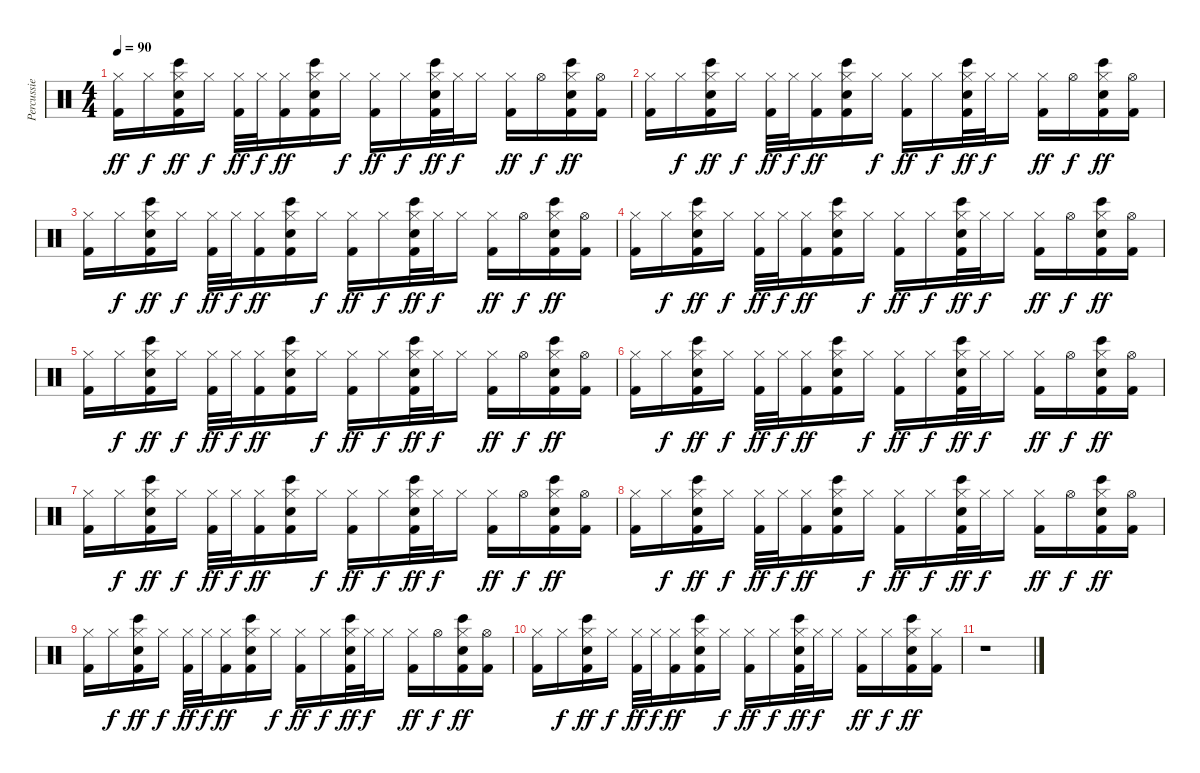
\track ("Percussie" "Percussie") {instrument percussion}
\staff {score}
\articulation defaults
\ts (4 4)
\tempo 90
\clef neutral
\ks c
("Hi-Hat (closed)" "Kick (hit) 2").16{dy ff} "Hi-Hat (closed)".16{dy f} ("Hi-Hat (closed)" "Electric Snare (hit)" "Bongo High (hit)" "Kick (hit) 2").16{dy ff} "Hi-Hat (closed)".16{dy f} ("Hi-Hat (closed)" "Kick (hit) 2").32{dy ff} "Hi-Hat (closed)".32{dy f} ("Hi-Hat (closed)" "Kick (hit) 2").16{dy ff} ("Hi-Hat (closed)" "Electric Snare (hit)" "Bongo High (hit)" "Kick (hit) 2").16 "Hi-Hat (closed)".16{dy f} ("Hi-Hat (closed)" "Kick (hit) 2").16{dy ff} "Hi-Hat (closed)".16{dy f} ("Hi-Hat (closed)" "Electric Snare (hit)" "Bongo High (hit)" "Kick (hit) 2").32{dy ff} "Hi-Hat (closed)".32{dy f} "Hi-Hat (closed)".16 ("Hi-Hat (closed)" "Kick (hit) 2").16{dy ff} "Hi-Hat (open)".16{dy f} ("Hi-Hat (closed)" "Electric Snare (hit)" "Bongo High (hit)" "Kick (hit) 2").16{dy ff} ("Hi-Hat (open)" "Kick (hit) 2").16 |
("Hi-Hat (closed)" "Kick (hit) 2").16 "Hi-Hat (closed)".16{dy f} ("Hi-Hat (closed)" "Electric Snare (hit)" "Bongo High (hit)" "Kick (hit) 2").16{dy ff} "Hi-Hat (closed)".16{dy f} ("Hi-Hat (closed)" "Kick (hit) 2").32{dy ff} "Hi-Hat (closed)".32{dy f} ("Hi-Hat (closed)" "Kick (hit) 2").16{dy ff} ("Hi-Hat (closed)" "Electric Snare (hit)" "Bongo High (hit)" "Kick (hit) 2").16 "Hi-Hat (closed)".16{dy f} ("Hi-Hat (closed)" "Kick (hit) 2").16{dy ff} "Hi-Hat (closed)".16{dy f} ("Hi-Hat (closed)" "Electric Snare (hit)" "Bongo High (hit)" "Kick (hit) 2").32{dy ff} "Hi-Hat (closed)".32{dy f} "Hi-Hat (closed)".16 ("Hi-Hat (closed)" "Kick (hit) 2").16{dy ff} "Hi-Hat (open)".16{dy f} ("Hi-Hat (closed)" "Electric Snare (hit)" "Bongo High (hit)" "Kick (hit) 2").16{dy ff} ("Hi-Hat (open)" "Kick (hit) 2").16 |
("Hi-Hat (closed)" "Kick (hit) 2").16 "Hi-Hat (closed)".16{dy f} ("Hi-Hat (closed)" "Electric Snare (hit)" "Bongo High (hit)" "Kick (hit) 2").16{dy ff} "Hi-Hat (closed)".16{dy f} ("Hi-Hat (closed)" "Kick (hit) 2").32{dy ff} "Hi-Hat (closed)".32{dy f} ("Hi-Hat (closed)" "Kick (hit) 2").16{dy ff} ("Hi-Hat (closed)" "Electric Snare (hit)" "Bongo High (hit)" "Kick (hit) 2").16 "Hi-Hat (closed)".16{dy f} ("Hi-Hat (closed)" "Kick (hit) 2").16{dy ff} "Hi-Hat (closed)".16{dy f} ("Hi-Hat (closed)" "Electric Snare (hit)" "Bongo High (hit)" "Kick (hit) 2").32{dy ff} "Hi-Hat (closed)".32{dy f} "Hi-Hat (closed)".16 ("Hi-Hat (closed)" "Kick (hit) 2").16{dy ff} "Hi-Hat (open)".16{dy f} ("Hi-Hat (closed)" "Electric Snare (hit)" "Bongo High (hit)" "Kick (hit) 2").16{dy ff} ("Hi-Hat (open)" "Kick (hit) 2").16 |
("Hi-Hat (closed)" "Kick (hit) 2").16 "Hi-Hat (closed)".16{dy f} ("Hi-Hat (closed)" "Electric Snare (hit)" "Bongo High (hit)" "Kick (hit) 2").16{dy ff} "Hi-Hat (closed)".16{dy f} ("Hi-Hat (closed)" "Kick (hit) 2").32{dy ff} "Hi-Hat (closed)".32{dy f} ("Hi-Hat (closed)" "Kick (hit) 2").16{dy ff} ("Hi-Hat (closed)" "Electric Snare (hit)" "Bongo High (hit)" "Kick (hit) 2").16 "Hi-Hat (closed)".16{dy f} ("Hi-Hat (closed)" "Kick (hit) 2").16{dy ff} "Hi-Hat (closed)".16{dy f} ("Hi-Hat (closed)" "Electric Snare (hit)" "Bongo High (hit)" "Kick (hit) 2").32{dy ff} "Hi-Hat (closed)".32{dy f} "Hi-Hat (closed)".16 ("Hi-Hat (closed)" "Kick (hit) 2").16{dy ff} "Hi-Hat (open)".16{dy f} ("Hi-Hat (closed)" "Electric Snare (hit)" "Bongo High (hit)" "Kick (hit) 2").16{dy ff} ("Hi-Hat (open)" "Kick (hit) 2").16 |
("Hi-Hat (closed)" "Kick (hit) 2").16 "Hi-Hat (closed)".16{dy f} ("Hi-Hat (closed)" "Electric Snare (hit)" "Bongo High (hit)" "Kick (hit) 2").16{dy ff} "Hi-Hat (closed)".16{dy f} ("Hi-Hat (closed)" "Kick (hit) 2").32{dy ff} "Hi-Hat (closed)".32{dy f} ("Hi-Hat (closed)" "Kick (hit) 2").16{dy ff} ("Hi-Hat (closed)" "Electric Snare (hit)" "Bongo High (hit)" "Kick (hit) 2").16 "Hi-Hat (closed)".16{dy f} ("Hi-Hat (closed)" "Kick (hit) 2").16{dy ff} "Hi-Hat (closed)".16{dy f} ("Hi-Hat (closed)" "Electric Snare (hit)" "Bongo High (hit)" "Kick (hit) 2").32{dy ff} "Hi-Hat (closed)".32{dy f} "Hi-Hat (closed)".16 ("Hi-Hat (closed)" "Kick (hit) 2").16{dy ff} "Hi-Hat (open)".16{dy f} ("Hi-Hat (closed)" "Electric Snare (hit)" "Bongo High (hit)" "Kick (hit) 2").16{dy ff} ("Hi-Hat (open)" "Kick (hit) 2").16 |
("Hi-Hat (closed)" "Kick (hit) 2").16 "Hi-Hat (closed)".16{dy f} ("Hi-Hat (closed)" "Electric Snare (hit)" "Bongo High (hit)" "Kick (hit) 2").16{dy ff} "Hi-Hat (closed)".16{dy f} ("Hi-Hat (closed)" "Kick (hit) 2").32{dy ff} "Hi-Hat (closed)".32{dy f} ("Hi-Hat (closed)" "Kick (hit) 2").16{dy ff} ("Hi-Hat (closed)" "Electric Snare (hit)" "Bongo High (hit)" "Kick (hit) 2").16 "Hi-Hat (closed)".16{dy f} ("Hi-Hat (closed)" "Kick (hit) 2").16{dy ff} "Hi-Hat (closed)".16{dy f} ("Hi-Hat (closed)" "Electric Snare (hit)" "Bongo High (hit)" "Kick (hit) 2").32{dy ff} "Hi-Hat (closed)".32{dy f} "Hi-Hat (closed)".16 ("Hi-Hat (closed)" "Kick (hit) 2").16{dy ff} "Hi-Hat (open)".16{dy f} ("Hi-Hat (closed)" "Electric Snare (hit)" "Bongo High (hit)" "Kick (hit) 2").16{dy ff} ("Hi-Hat (open)" "Kick (hit) 2").16 |
("Hi-Hat (closed)" "Kick (hit) 2").16 "Hi-Hat (closed)".16{dy f} ("Hi-Hat (closed)" "Electric Snare (hit)" "Bongo High (hit)" "Kick (hit) 2").16{dy ff} "Hi-Hat (closed)".16{dy f} ("Hi-Hat (closed)" "Kick (hit) 2").32{dy ff} "Hi-Hat (closed)".32{dy f} ("Hi-Hat (closed)" "Kick (hit) 2").16{dy ff} ("Hi-Hat (closed)" "Electric Snare (hit)" "Bongo High (hit)" "Kick (hit) 2").16 "Hi-Hat (closed)".16{dy f} ("Hi-Hat (closed)" "Kick (hit) 2").16{dy ff} "Hi-Hat (closed)".16{dy f} ("Hi-Hat (closed)" "Electric Snare (hit)" "Bongo High (hit)" "Kick (hit) 2").32{dy ff} "Hi-Hat (closed)".32{dy f} "Hi-Hat (closed)".16 ("Hi-Hat (closed)" "Kick (hit) 2").16{dy ff} "Hi-Hat (open)".16{dy f} ("Hi-Hat (closed)" "Electric Snare (hit)" "Bongo High (hit)" "Kick (hit) 2").16{dy ff} ("Hi-Hat (open)" "Kick (hit) 2").16 |
("Hi-Hat (closed)" "Kick (hit) 2").16 "Hi-Hat (closed)".16{dy f} ("Hi-Hat (closed)" "Electric Snare (hit)" "Bongo High (hit)" "Kick (hit) 2").16{dy ff} "Hi-Hat (closed)".16{dy f} ("Hi-Hat (closed)" "Kick (hit) 2").32{dy ff} "Hi-Hat (closed)".32{dy f} ("Hi-Hat (closed)" "Kick (hit) 2").16{dy ff} ("Hi-Hat (closed)" "Electric Snare (hit)" "Bongo High (hit)" "Kick (hit) 2").16 "Hi-Hat (closed)".16{dy f} ("Hi-Hat (closed)" "Kick (hit) 2").16{dy ff} "Hi-Hat (closed)".16{dy f} ("Hi-Hat (closed)" "Electric Snare (hit)" "Bongo High (hit)" "Kick (hit) 2").32{dy ff} "Hi-Hat (closed)".32{dy f} "Hi-Hat (closed)".16 ("Hi-Hat (closed)" "Kick (hit) 2").16{dy ff} "Hi-Hat (open)".16{dy f} ("Hi-Hat (closed)" "Electric Snare (hit)" "Bongo High (hit)" "Kick (hit) 2").16{dy ff} ("Hi-Hat (open)" "Kick (hit) 2").16 |
("Hi-Hat (closed)" "Kick (hit) 2").16 "Hi-Hat (closed)".16{dy f} ("Hi-Hat (closed)" "Electric Snare (hit)" "Bongo High (hit)" "Kick (hit) 2").16{dy ff} "Hi-Hat (closed)".16{dy f} ("Hi-Hat (closed)" "Kick (hit) 2").32{dy ff} "Hi-Hat (closed)".32{dy f} ("Hi-Hat (closed)" "Kick (hit) 2").16{dy ff} ("Hi-Hat (closed)" "Electric Snare (hit)" "Bongo High (hit)" "Kick (hit) 2").16 "Hi-Hat (closed)".16{dy f} ("Hi-Hat (closed)" "Kick (hit) 2").16{dy ff} "Hi-Hat (closed)".16{dy f} ("Hi-Hat (closed)" "Electric Snare (hit)" "Bongo High (hit)" "Kick (hit) 2").32{dy ff} "Hi-Hat (closed)".32{dy f} "Hi-Hat (closed)".16 ("Hi-Hat (closed)" "Kick (hit) 2").16{dy ff} "Hi-Hat (open)".16{dy f} ("Hi-Hat (closed)" "Electric Snare (hit)" "Bongo High (hit)" "Kick (hit) 2").16{dy ff} ("Hi-Hat (open)" "Kick (hit) 2").16 |
("Hi-Hat (closed)" "Kick (hit) 2").16 "Hi-Hat (closed)".16{dy f} ("Hi-Hat (closed)" "Electric Snare (hit)" "Bongo High (hit)" "Kick (hit) 2").16{dy ff} "Hi-Hat (closed)".16{dy f} ("Hi-Hat (closed)" "Kick (hit) 2").32{dy ff} "Hi-Hat (closed)".32{dy f} ("Hi-Hat (closed)" "Kick (hit) 2").16{dy ff} ("Hi-Hat (closed)" "Electric Snare (hit)" "Bongo High (hit)" "Kick (hit) 2").16 "Hi-Hat (closed)".16{dy f} ("Hi-Hat (closed)" "Kick (hit) 2").16{dy ff} "Hi-Hat (closed)".16{dy f} ("Hi-Hat (closed)" "Electric Snare (hit)" "Bongo High (hit)" "Kick (hit) 2").32{dy ff} "Hi-Hat (closed)".32{dy f} "Hi-Hat (closed)".16 ("Hi-Hat (closed)" "Kick (hit) 2").16{dy ff} "Hi-Hat (closed)".16{dy f} ("Hi-Hat (closed)" "Electric Snare (hit)" "Bongo High (hit)" "Kick (hit) 2").16{dy ff} ("Hi-Hat (closed)" "Kick (hit) 2").16 |
r.1
